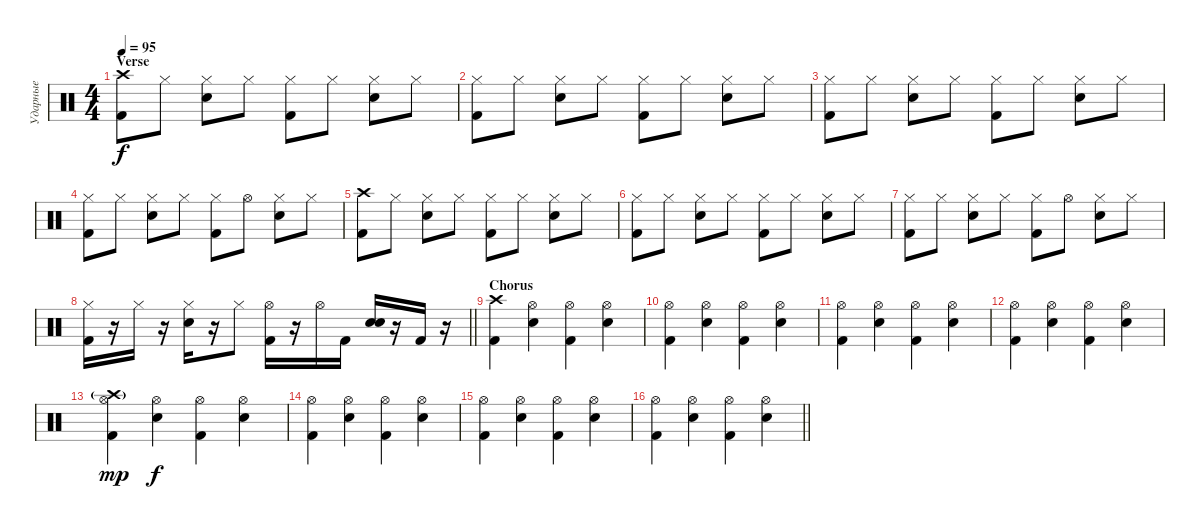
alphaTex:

\track ("Ударные" "Ударные") {instrument percussion}
\staff {score}
\articulation defaults
\ts (4 4)
\section ("" "Verse")
\tempo 95
\clef neutral
\ks c
("Crash high (hit)" "Kick (hit) 2").8{dy f} "Hi-Hat (closed)".8 ("Hi-Hat (closed)" "Electric Snare (hit)").8 "Hi-Hat (closed)".8 ("Hi-Hat (closed)" "Kick (hit) 2").8 "Hi-Hat (closed)".8 ("Hi-Hat (closed)" "Electric Snare (hit)").8 "Hi-Hat (closed)".8 |
("Hi-Hat (closed)" "Kick (hit) 2").8 "Hi-Hat (closed)".8 ("Hi-Hat (closed)" "Electric Snare (hit)").8 "Hi-Hat (closed)".8 ("Hi-Hat (closed)" "Kick (hit) 2").8 "Hi-Hat (closed)".8 ("Hi-Hat (closed)" "Electric Snare (hit)").8 "Hi-Hat (closed)".8 |
("Hi-Hat (closed)" "Kick (hit) 2").8 "Hi-Hat (closed)".8 ("Hi-Hat (closed)" "Electric Snare (hit)").8 "Hi-Hat (closed)".8 ("Hi-Hat (closed)" "Kick (hit) 2").8 "Hi-Hat (closed)".8 ("Hi-Hat (closed)" "Electric Snare (hit)").8 "Hi-Hat (closed)".8 |
("Hi-Hat (closed)" "Kick (hit) 2").8 "Hi-Hat (closed)".8 ("Hi-Hat (closed)" "Electric Snare (hit)").8 "Hi-Hat (closed)".8 ("Hi-Hat (closed)" "Kick (hit) 2").8 "Hi-Hat (open)".8 ("Hi-Hat (closed)" "Electric Snare (hit)").8 "Hi-Hat (closed)".8 |
("Crash high (hit)" "Kick (hit) 2").8 "Hi-Hat (closed)".8 ("Hi-Hat (closed)" "Electric Snare (hit)").8 "Hi-Hat (closed)".8 ("Hi-Hat (closed)" "Kick (hit) 2").8 "Hi-Hat (closed)".8 ("Hi-Hat (closed)" "Electric Snare (hit)").8 "Hi-Hat (closed)".8 |
("Hi-Hat (closed)" "Kick (hit) 2").8 "Hi-Hat (closed)".8 ("Hi-Hat (closed)" "Electric Snare (hit)").8 "Hi-Hat (closed)".8 ("Hi-Hat (closed)" "Kick (hit) 2").8 "Hi-Hat (closed)".8 ("Hi-Hat (closed)" "Electric Snare (hit)").8 "Hi-Hat (closed)".8 |
("Hi-Hat (closed)" "Kick (hit) 2").8 "Hi-Hat (closed)".8 ("Hi-Hat (closed)" "Electric Snare (hit)").8 "Hi-Hat (closed)".8 ("Hi-Hat (closed)" "Kick (hit) 2").8 "Hi-Hat (open)".8 ("Hi-Hat (closed)" "Electric Snare (hit)").8 "Hi-Hat (closed)".8 |
\barLineRight lightlight
("Hi-Hat (closed)" "Kick (hit) 2").16 r.16 "Hi-Hat (closed)".16 r.16 ("Hi-Hat (closed)" "Electric Snare (hit)").16 r.16 "Hi-Hat (closed)".8 ("Hi-Hat (open)" "Kick (hit) 2").16 r.16 "Hi-Hat (open)".16 "Kick (hit) 2".16 ("Electric Snare (hit)" "Electric Snare (hit)").16{bu 120} r.16 "Kick (hit) 2".16 r.16 |
\section ("" "Chorus")
("Crash high (hit)" "Kick (hit) 2").4 ("Hi-Hat (open)" "Electric Snare (hit)").4 ("Hi-Hat (open)" "Kick (hit) 2").4 ("Hi-Hat (open)" "Electric Snare (hit)").4 |
("Hi-Hat (open)" "Kick (hit) 2").4 ("Hi-Hat (open)" "Electric Snare (hit)").4 ("Hi-Hat (open)" "Kick (hit) 2").4 ("Hi-Hat (open)" "Electric Snare (hit)").4 |
("Hi-Hat (open)" "Kick (hit) 2").4 ("Hi-Hat (open)" "Electric Snare (hit)").4 ("Hi-Hat (open)" "Kick (hit) 2").4 ("Hi-Hat (open)" "Electric Snare (hit)").4 |
("Hi-Hat (open)" "Kick (hit) 2").4 ("Hi-Hat (open)" "Electric Snare (hit)").4 ("Hi-Hat (open)" "Kick (hit) 2").4 ("Hi-Hat (open)" "Electric Snare (hit)").4 |
("Crash high (hit)"{g} "Hi-Hat (open)" "Kick (hit) 2").4{dy mp} ("Hi-Hat (open)" "Electric Snare (hit)").4{dy f} ("Hi-Hat (open)" "Kick (hit) 2").4 ("Hi-Hat (open)" "Electric Snare (hit)").4 |
("Hi-Hat (open)" "Kick (hit) 2").4 ("Hi-Hat (open)" "Electric Snare (hit)").4 ("Hi-Hat (open)" "Kick (hit) 2").4 ("Hi-Hat (open)" "Electric Snare (hit)").4 |
("Hi-Hat (open)" "Kick (hit) 2").4 ("Hi-Hat (open)" "Electric Snare (hit)").4 ("Hi-Hat (open)" "Kick (hit) 2").4 ("Hi-Hat (open)" "Electric Snare (hit)").4 |
\barLineRight lightlight
("Hi-Hat (open)" "Kick (hit) 2").4 ("Hi-Hat (open)" "Electric Snare (hit)").4 ("Hi-Hat (open)" "Kick (hit) 2").4 ("Hi-Hat (open)" "Electric Snare (hit)").4
